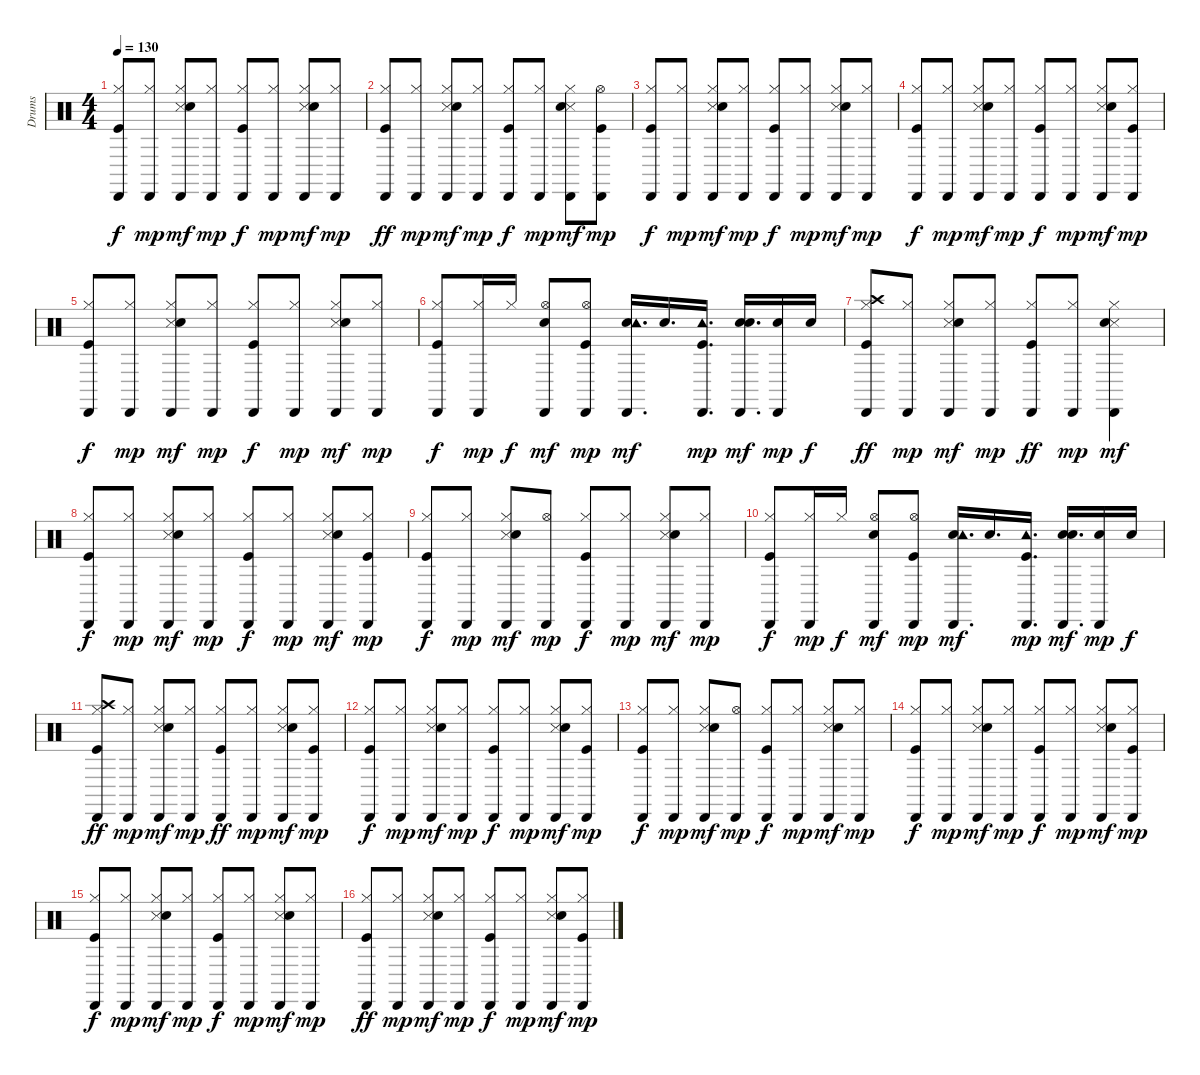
\track ("Drums" "Drums") {instrument percussion}
\staff {score}
\articulation defaults
\ts (4 4)
\tempo 130
\clef neutral
\ks c
("Kick (hit)" "Hi-Hat (closed)" "Cabasa (hit)").8{dy f} ("Hi-Hat (closed)" "Cabasa (hit)").8{dy mp} ("Hi-Hat (closed)" "Snare (side stick) 3" "Hand Clap (hit)" "Cabasa (hit)").8{dy mf} ("Hi-Hat (closed)" "Cabasa (hit)").8{dy mp} ("Kick (hit)" "Hi-Hat (closed)" "Cabasa (hit)").8{dy f} ("Hi-Hat (closed)" "Cabasa (hit)").8{dy mp} ("Hi-Hat (closed)" "Snare (side stick) 3" "Hand Clap (hit)" "Cabasa (hit)").8{dy mf} ("Hi-Hat (closed)" "Cabasa (hit)").8{dy mp} |
("Kick (hit)" "Hi-Hat (closed)" "Cabasa (hit)").8{dy ff} ("Hi-Hat (closed)" "Cabasa (hit)").8{dy mp} ("Hi-Hat (closed)" "Snare (side stick) 3" "Hand Clap (hit)" "Cabasa (hit)").8{dy mf} ("Hi-Hat (closed)" "Cabasa (hit)").8{dy mp} ("Kick (hit)" "Hi-Hat (closed)" "Cabasa (hit)").8{dy f} ("Hi-Hat (closed)" "Cabasa (hit)").8{dy mp} ("Hi-Hat (closed)" "Snare (side stick) 3" "Hand Clap (hit)" "Cabasa (hit)").8{dy mf} ("Kick (hit)" "Hi-Hat (open)" "Cabasa (hit)").8{dy mp} |
("Kick (hit)" "Hi-Hat (closed)" "Cabasa (hit)").8{dy f} ("Hi-Hat (closed)" "Cabasa (hit)").8{dy mp} ("Hi-Hat (closed)" "Snare (side stick) 3" "Hand Clap (hit)" "Cabasa (hit)").8{dy mf} ("Hi-Hat (closed)" "Cabasa (hit)").8{dy mp} ("Kick (hit)" "Hi-Hat (closed)" "Cabasa (hit)").8{dy f} ("Hi-Hat (closed)" "Cabasa (hit)").8{dy mp} ("Hi-Hat (closed)" "Snare (side stick) 3" "Hand Clap (hit)" "Cabasa (hit)").8{dy mf} ("Hi-Hat (closed)" "Cabasa (hit)").8{dy mp} |
("Kick (hit)" "Hi-Hat (closed)" "Cabasa (hit)").8{dy f} ("Hi-Hat (closed)" "Cabasa (hit)").8{dy mp} ("Hi-Hat (closed)" "Snare (side stick) 3" "Hand Clap (hit)" "Cabasa (hit)").8{dy mf} ("Hi-Hat (closed)" "Cabasa (hit)").8{dy mp} ("Kick (hit)" "Hi-Hat (closed)" "Cabasa (hit)").8{dy f} ("Hi-Hat (closed)" "Cabasa (hit)").8{dy mp} ("Hi-Hat (closed)" "Snare (side stick) 3" "Hand Clap (hit)" "Cabasa (hit)").8{dy mf} ("Kick (hit)" "Hi-Hat (closed)" "Cabasa (hit)").8{dy mp} |
("Kick (hit)" "Hi-Hat (closed)" "Cabasa (hit)").8{dy f} ("Hi-Hat (closed)" "Cabasa (hit)").8{dy mp} ("Hi-Hat (closed)" "Snare (side stick) 3" "Hand Clap (hit)" "Cabasa (hit)").8{dy mf} ("Hi-Hat (closed)" "Cabasa (hit)").8{dy mp} ("Kick (hit)" "Hi-Hat (closed)" "Cabasa (hit)").8{dy f} ("Hi-Hat (closed)" "Cabasa (hit)").8{dy mp} ("Hi-Hat (closed)" "Snare (side stick) 3" "Hand Clap (hit)" "Cabasa (hit)").8{dy mf} ("Hi-Hat (closed)" "Cabasa (hit)").8{dy mp} |
("Kick (hit)" "Hi-Hat (closed)" "Cabasa (hit)").8{dy f} ("Hi-Hat (closed)" "Cabasa (hit)").16{dy mp} "Hi-Hat (closed)".16{dy f} ("Hi-Hat (open)" "Hand Clap (hit)" "Cabasa (hit)").8{dy mf} ("Kick (hit)" "Hi-Hat (open)" "Cabasa (hit)").8{dy mp} ("Snare (hit) 2" "Tambourine (hit)" "Cabasa (hit)").16{d dy mf} "Snare (hit) 2".16{d} ("Kick (hit)" "Tambourine (hit)" "Cabasa (hit)").16{d dy mp} ("Snare (hit) 2" "Hand Clap (hit)" "Cabasa (hit)").16{d dy mf} ("Snare (hit) 2" "Cabasa (hit)").16{dy mp} "Snare (hit) 2".16{dy f} |
("Kick (hit)" "Hi-Hat (closed)" "Crash high (hit)" "Cabasa (hit)").8{dy ff} ("Hi-Hat (closed)" "Cabasa (hit)").8{dy mp} ("Hi-Hat (closed)" "Snare (side stick) 3" "Hand Clap (hit)" "Cabasa (hit)").8{dy mf} ("Hi-Hat (closed)" "Cabasa (hit)").8{dy mp} ("Kick (hit)" "Hi-Hat (closed)" "Cabasa (hit)").8{dy ff} ("Hi-Hat (closed)" "Cabasa (hit)").8{dy mp} ("Hi-Hat (closed)" "Snare (side stick) 3" "Hand Clap (hit)" "Cabasa (hit)").4{dy mf} |
("Kick (hit)" "Hi-Hat (closed)" "Cabasa (hit)").8{dy f} ("Hi-Hat (closed)" "Cabasa (hit)").8{dy mp} ("Hi-Hat (closed)" "Snare (side stick) 3" "Hand Clap (hit)" "Cabasa (hit)").8{dy mf} ("Hi-Hat (closed)" "Cabasa (hit)").8{dy mp} ("Kick (hit)" "Hi-Hat (closed)" "Cabasa (hit)").8{dy f} ("Hi-Hat (closed)" "Cabasa (hit)").8{dy mp} ("Hi-Hat (closed)" "Snare (side stick) 3" "Hand Clap (hit)" "Cabasa (hit)").8{dy mf} ("Kick (hit)" "Hi-Hat (closed)" "Cabasa (hit)").8{dy mp} |
("Kick (hit)" "Hi-Hat (closed)" "Cabasa (hit)").8{dy f} ("Hi-Hat (closed)" "Cabasa (hit)").8{dy mp} ("Hi-Hat (closed)" "Snare (side stick) 3" "Hand Clap (hit)" "Cabasa (hit)").8{dy mf} ("Hi-Hat (open)" "Cabasa (hit)").8{dy mp} ("Kick (hit)" "Hi-Hat (closed)" "Cabasa (hit)").8{dy f} ("Hi-Hat (closed)" "Cabasa (hit)").8{dy mp} ("Hi-Hat (closed)" "Snare (side stick) 3" "Hand Clap (hit)" "Cabasa (hit)").8{dy mf} ("Hi-Hat (closed)" "Cabasa (hit)").8{dy mp} |
("Kick (hit)" "Hi-Hat (closed)" "Cabasa (hit)").8{dy f} ("Hi-Hat (closed)" "Cabasa (hit)").16{dy mp} "Hi-Hat (closed)".16{dy f} ("Hi-Hat (open)" "Hand Clap (hit)" "Cabasa (hit)").8{dy mf} ("Kick (hit)" "Hi-Hat (open)" "Cabasa (hit)").8{dy mp} ("Snare (hit) 2" "Tambourine (hit)" "Cabasa (hit)").16{d dy mf} "Snare (hit) 2".16{d} ("Kick (hit)" "Tambourine (hit)" "Cabasa (hit)").16{d dy mp} ("Snare (hit) 2" "Hand Clap (hit)" "Cabasa (hit)").16{d dy mf} ("Snare (hit) 2" "Cabasa (hit)").16{dy mp} "Snare (hit) 2".16{dy f} |
("Kick (hit)" "Hi-Hat (closed)" "Crash high (hit)" "Cabasa (hit)").8{dy ff} ("Hi-Hat (closed)" "Cabasa (hit)").8{dy mp} ("Hi-Hat (closed)" "Snare (side stick) 3" "Hand Clap (hit)" "Cabasa (hit)").8{dy mf} ("Hi-Hat (closed)" "Cabasa (hit)").8{dy mp} ("Kick (hit)" "Hi-Hat (closed)" "Cabasa (hit)").8{dy ff} ("Hi-Hat (closed)" "Cabasa (hit)").8{dy mp} ("Hi-Hat (closed)" "Snare (side stick) 3" "Hand Clap (hit)" "Cabasa (hit)").8{dy mf} ("Kick (hit)" "Hi-Hat (closed)" "Cabasa (hit)").8{dy mp} |
("Kick (hit)" "Hi-Hat (closed)" "Cabasa (hit)").8{dy f} ("Hi-Hat (closed)" "Cabasa (hit)").8{dy mp} ("Hi-Hat (closed)" "Snare (side stick) 3" "Hand Clap (hit)" "Cabasa (hit)").8{dy mf} ("Hi-Hat (closed)" "Cabasa (hit)").8{dy mp} ("Kick (hit)" "Hi-Hat (closed)" "Cabasa (hit)").8{dy f} ("Hi-Hat (closed)" "Cabasa (hit)").8{dy mp} ("Hi-Hat (closed)" "Snare (side stick) 3" "Hand Clap (hit)" "Cabasa (hit)").8{dy mf} ("Kick (hit)" "Hi-Hat (closed)" "Cabasa (hit)").8{dy mp} |
("Kick (hit)" "Hi-Hat (closed)" "Cabasa (hit)").8{dy f} ("Hi-Hat (closed)" "Cabasa (hit)").8{dy mp} ("Hi-Hat (closed)" "Snare (side stick) 3" "Hand Clap (hit)" "Cabasa (hit)").8{dy mf} ("Hi-Hat (open)" "Cabasa (hit)").8{dy mp} ("Kick (hit)" "Hi-Hat (closed)" "Cabasa (hit)").8{dy f} ("Hi-Hat (closed)" "Cabasa (hit)").8{dy mp} ("Hi-Hat (closed)" "Snare (side stick) 3" "Hand Clap (hit)" "Cabasa (hit)").8{dy mf} ("Hi-Hat (closed)" "Cabasa (hit)").8{dy mp} |
("Kick (hit)" "Hi-Hat (closed)" "Cabasa (hit)").8{dy f} ("Hi-Hat (closed)" "Cabasa (hit)").8{dy mp} ("Hi-Hat (closed)" "Snare (side stick) 3" "Hand Clap (hit)" "Cabasa (hit)").8{dy mf} ("Hi-Hat (closed)" "Cabasa (hit)").8{dy mp} ("Kick (hit)" "Hi-Hat (closed)" "Cabasa (hit)").8{dy f} ("Hi-Hat (closed)" "Cabasa (hit)").8{dy mp} ("Hi-Hat (closed)" "Snare (side stick) 3" "Hand Clap (hit)" "Cabasa (hit)").8{dy mf} ("Kick (hit)" "Hi-Hat (closed)" "Cabasa (hit)").8{dy mp} |
("Kick (hit)" "Hi-Hat (closed)" "Cabasa (hit)").8{dy f} ("Hi-Hat (closed)" "Cabasa (hit)").8{dy mp} ("Hi-Hat (closed)" "Snare (side stick) 3" "Hand Clap (hit)" "Cabasa (hit)").8{dy mf} ("Hi-Hat (closed)" "Cabasa (hit)").8{dy mp} ("Kick (hit)" "Hi-Hat (closed)" "Cabasa (hit)").8{dy f} ("Hi-Hat (closed)" "Cabasa (hit)").8{dy mp} ("Hi-Hat (closed)" "Snare (side stick) 3" "Hand Clap (hit)" "Cabasa (hit)").8{dy mf} ("Hi-Hat (closed)" "Cabasa (hit)").8{dy mp} |
("Kick (hit)" "Hi-Hat (closed)" "Cabasa (hit)").8{dy ff} ("Hi-Hat (closed)" "Cabasa (hit)").8{dy mp} ("Hi-Hat (closed)" "Snare (side stick) 3" "Hand Clap (hit)" "Cabasa (hit)").8{dy mf} ("Hi-Hat (closed)" "Cabasa (hit)").8{dy mp} ("Kick (hit)" "Hi-Hat (closed)" "Cabasa (hit)").8{dy f} ("Hi-Hat (closed)" "Cabasa (hit)").8{dy mp} ("Hi-Hat (closed)" "Snare (side stick) 3" "Hand Clap (hit)" "Cabasa (hit)").8{dy mf} ("Kick (hit)" "Hi-Hat (closed)" "Cabasa (hit)").8{dy mp}
